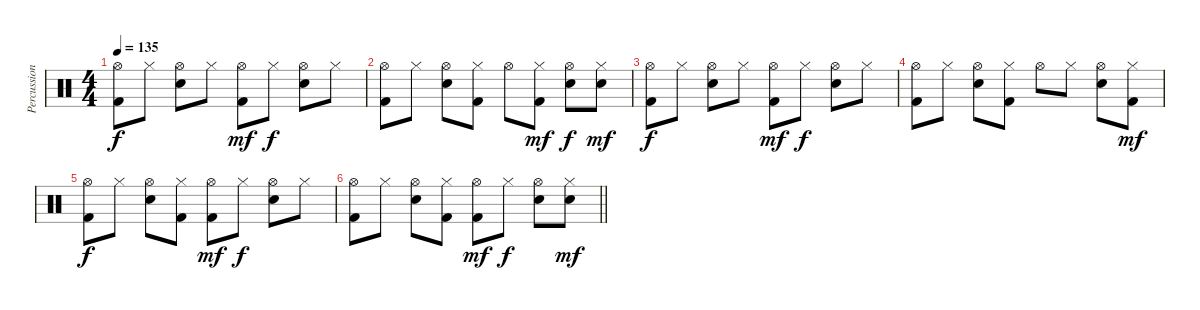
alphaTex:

\track ("Percussion" "Percussion") {instrument percussion}
\staff {score}
\articulation defaults
\ts (4 4)
\tempo 135
\clef neutral
\ks c
("Hi-Hat (open)" "Kick (hit) 2").8{dy f} "Hi-Hat (closed)".8 ("Hi-Hat (open)" "Electric Snare (hit)").8 "Hi-Hat (closed)".8 ("Hi-Hat (open)" "Kick (hit) 2").8{dy mf} "Hi-Hat (closed)".8{dy f} ("Hi-Hat (open)" "Electric Snare (hit)").8 "Hi-Hat (closed)".8 |
("Hi-Hat (open)" "Kick (hit) 2").8 "Hi-Hat (closed)".8 ("Hi-Hat (open)" "Electric Snare (hit)").8 ("Hi-Hat (closed)" "Kick (hit) 2").8 "Hi-Hat (open)".8 ("Hi-Hat (closed)" "Kick (hit) 2").8{dy mf} ("Hi-Hat (open)" "Electric Snare (hit)").8{dy f} ("Hi-Hat (closed)" "Electric Snare (hit)").8{dy mf} |
("Hi-Hat (open)" "Kick (hit) 2").8{dy f} "Hi-Hat (closed)".8 ("Hi-Hat (open)" "Electric Snare (hit)").8 "Hi-Hat (closed)".8 ("Hi-Hat (open)" "Kick (hit) 2").8{dy mf} "Hi-Hat (closed)".8{dy f} ("Hi-Hat (open)" "Electric Snare (hit)").8 "Hi-Hat (closed)".8 |
("Hi-Hat (open)" "Kick (hit) 2").8 "Hi-Hat (closed)".8 ("Hi-Hat (open)" "Electric Snare (hit)").8 ("Hi-Hat (closed)" "Kick (hit) 2").8 "Hi-Hat (open)".8 "Hi-Hat (closed)".8 ("Hi-Hat (open)" "Electric Snare (hit)").8 ("Hi-Hat (closed)" "Kick (hit) 2").8{dy mf} |
("Hi-Hat (open)" "Kick (hit) 2").8{dy f} "Hi-Hat (closed)".8 ("Hi-Hat (open)" "Electric Snare (hit)").8 ("Hi-Hat (closed)" "Kick (hit) 2").8 ("Hi-Hat (open)" "Kick (hit) 2").8{dy mf} "Hi-Hat (closed)".8{dy f} ("Hi-Hat (open)" "Electric Snare (hit)").8 "Hi-Hat (closed)".8 |
\barLineRight lightlight
("Hi-Hat (open)" "Kick (hit) 2").8 "Hi-Hat (closed)".8 ("Hi-Hat (open)" "Electric Snare (hit)").8 ("Hi-Hat (closed)" "Kick (hit) 2").8 ("Hi-Hat (open)" "Kick (hit) 2").8{dy mf} "Hi-Hat (closed)".8{dy f} ("Hi-Hat (open)" "Electric Snare (hit)").8 ("Hi-Hat (closed)" "Electric Snare (hit)").8{dy mf}
